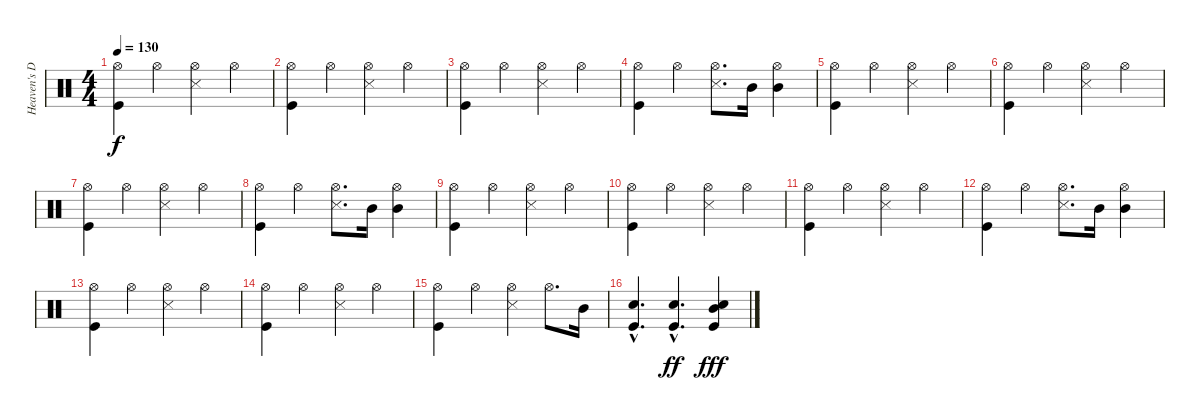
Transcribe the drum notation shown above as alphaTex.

\track ("Heaven's Door" "Heaven's D") {instrument percussion}
\staff {score}
\articulation defaults
\ts (4 4)
\tempo 130
\clef neutral
\ks c
("Hi-Hat (open)" "Kick (hit)").4{dy f} "Hi-Hat (open)".4 ("Snare (side stick) 3" "Hi-Hat (open)").4 "Hi-Hat (open)".4 |
("Hi-Hat (open)" "Kick (hit)").4 "Hi-Hat (open)".4 ("Snare (side stick) 3" "Hi-Hat (open)").4 "Hi-Hat (open)".4 |
("Hi-Hat (open)" "Kick (hit)").4 "Hi-Hat (open)".4 ("Snare (side stick) 3" "Hi-Hat (open)").4 "Hi-Hat (open)".4 |
("Hi-Hat (open)" "Kick (hit)").4 "Hi-Hat (open)".4 ("Snare (side stick) 3" "Hi-Hat (open)").8{d} "Mid Tom (hit)".16 ("Mid Tom (hit)" "Hi-Hat (open)").4 |
("Hi-Hat (open)" "Kick (hit)").4 "Hi-Hat (open)".4 ("Snare (side stick) 3" "Hi-Hat (open)").4 "Hi-Hat (open)".4 |
("Hi-Hat (open)" "Kick (hit)").4 "Hi-Hat (open)".4 ("Snare (side stick) 3" "Hi-Hat (open)").4 "Hi-Hat (open)".4 |
("Hi-Hat (open)" "Kick (hit)").4 "Hi-Hat (open)".4 ("Snare (side stick) 3" "Hi-Hat (open)").4 "Hi-Hat (open)".4 |
("Hi-Hat (open)" "Kick (hit)").4 "Hi-Hat (open)".4 ("Snare (side stick) 3" "Hi-Hat (open)").8{d} "Mid Tom (hit)".16 ("Mid Tom (hit)" "Hi-Hat (open)").4 |
("Hi-Hat (open)" "Kick (hit)").4 "Hi-Hat (open)".4 ("Snare (side stick) 3" "Hi-Hat (open)").4 "Hi-Hat (open)".4 |
("Hi-Hat (open)" "Kick (hit)").4 "Hi-Hat (open)".4 ("Snare (side stick) 3" "Hi-Hat (open)").4 "Hi-Hat (open)".4 |
("Hi-Hat (open)" "Kick (hit)").4 "Hi-Hat (open)".4 ("Snare (side stick) 3" "Hi-Hat (open)").4 "Hi-Hat (open)".4 |
("Hi-Hat (open)" "Kick (hit)").4 "Hi-Hat (open)".4 ("Snare (side stick) 3" "Hi-Hat (open)").8{d} "Mid Tom (hit)".16 ("Mid Tom (hit)" "Hi-Hat (open)").4 |
("Hi-Hat (open)" "Kick (hit)").4 "Hi-Hat (open)".4 ("Snare (side stick) 3" "Hi-Hat (open)").4 "Hi-Hat (open)".4 |
("Hi-Hat (open)" "Kick (hit)").4 "Hi-Hat (open)".4 ("Snare (side stick) 3" "Hi-Hat (open)").4 "Hi-Hat (open)".4 |
("Hi-Hat (open)" "Kick (hit)").4 "Hi-Hat (open)".4 ("Snare (side stick) 3" "Hi-Hat (open)").4 "Hi-Hat (open)".8{d} "Mid Tom (hit)".16 |
("Electric Snare (hit)"{hac} "Kick (hit)"{hac}).4{d} ("Electric Snare (hit)"{hac} "Kick (hit)"{hac}).4{d dy ff} ("Mid Tom (hit)" "Electric Snare (hit)" "Kick (hit)").4{dy fff}
